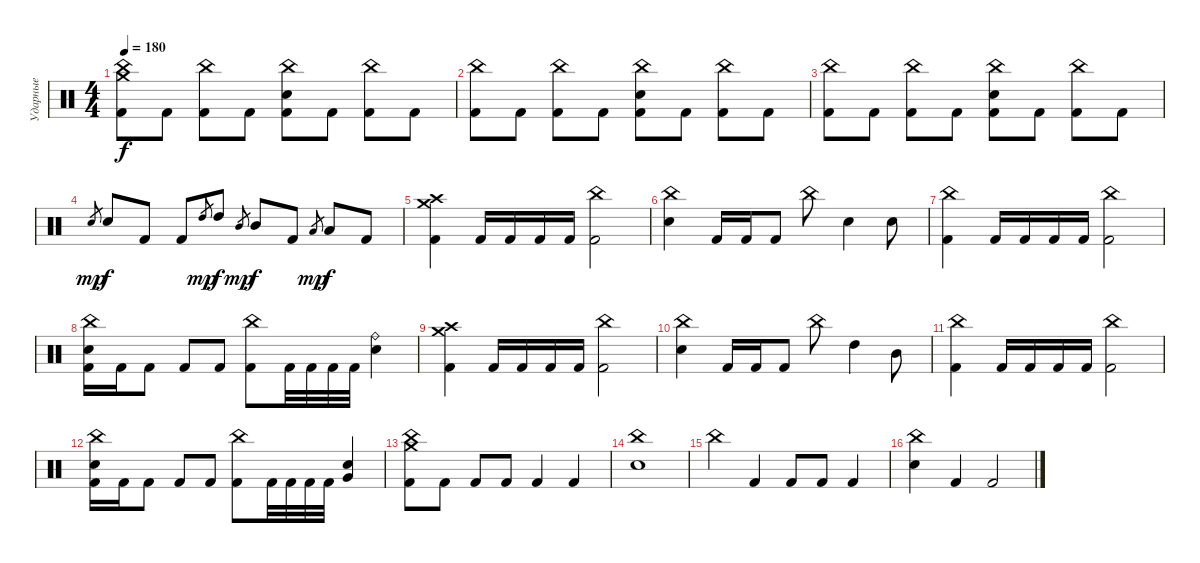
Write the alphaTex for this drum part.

\track ("Ударные" "Ударные") {instrument percussion}
\staff {score}
\articulation defaults
\ts (4 4)
\tempo 180
\clef neutral
\ks c
("China (hit)" "Crash medium (hit)" "Kick (hit) 2").8{dy f} "Kick (hit) 2".8 ("China (hit)" "Kick (hit) 2").8 "Kick (hit) 2".8 ("China (hit)" "Electric Snare (hit)" "Kick (hit) 2").8 "Kick (hit) 2".8 ("China (hit)" "Kick (hit) 2").8 "Kick (hit) 2".8 |
("China (hit)" "Kick (hit) 2").8 "Kick (hit) 2".8 ("China (hit)" "Kick (hit) 2").8 "Kick (hit) 2".8 ("China (hit)" "Electric Snare (hit)" "Kick (hit) 2").8 "Kick (hit) 2".8 ("China (hit)" "Kick (hit) 2").8 "Kick (hit) 2".8 |
("China (hit)" "Kick (hit) 2").8 "Kick (hit) 2".8 ("China (hit)" "Kick (hit) 2").8 "Kick (hit) 2".8 ("China (hit)" "Electric Snare (hit)" "Kick (hit) 2").8 "Kick (hit) 2".8 ("China (hit)" "Kick (hit) 2").8 "Kick (hit) 2".8 |
"Electric Snare (hit)".8{gr dy mp} "Electric Snare (hit)".8{dy f} "Kick (hit) 2".8 "Kick (hit) 2".8 "High Tom (hit)".8{gr dy mp} "High Tom (hit)".8{dy f} "Mid Tom (hit)".8{gr dy mp} "Mid Tom (hit)".8{dy f} "Kick (hit) 2".8 "Low Tom (hit)".8{gr dy mp} "Low Tom (hit)".8{dy f} "Kick (hit) 2".8 |
("Crash high (hit)" "Crash medium (hit)" "Kick (hit) 2").4 "Kick (hit) 2".16 "Kick (hit) 2".16 "Kick (hit) 2".16 "Kick (hit) 2".16 ("China (hit)" "Kick (hit) 2").2 |
("China (hit)" "Electric Snare (hit)").4 "Kick (hit) 2".16 "Kick (hit) 2".16 "Kick (hit) 2".8 "China (hit)".8 "Electric Snare (hit)".4 "Electric Snare (hit)".8 |
("China (hit)" "Kick (hit) 2").4 "Kick (hit) 2".16 "Kick (hit) 2".16 "Kick (hit) 2".16 "Kick (hit) 2".16 ("China (hit)" "Kick (hit) 2").2 |
("China (hit)" "Electric Snare (hit)" "Kick (hit) 2").16 "Kick (hit) 2".16 "Kick (hit) 2".8 "Kick (hit) 2".8 "Kick (hit) 2".8 ("China (hit)" "Kick (hit) 2").8 "Kick (hit) 2".32 "Kick (hit) 2".32 "Kick (hit) 2".32 "Kick (hit) 2".32 ("Ride (bell)" "Electric Snare (hit)").4 |
("Crash high (hit)" "Crash medium (hit)" "Kick (hit) 2").4 "Kick (hit) 2".16 "Kick (hit) 2".16 "Kick (hit) 2".16 "Kick (hit) 2".16 ("China (hit)" "Kick (hit) 2").2 |
("China (hit)" "Electric Snare (hit)").4 "Kick (hit) 2".16 "Kick (hit) 2".16 "Kick (hit) 2".8 "China (hit)".8 "High Tom (hit)".4 "Mid Tom (hit)".8 |
("China (hit)" "Kick (hit) 2").4 "Kick (hit) 2".16 "Kick (hit) 2".16 "Kick (hit) 2".16 "Kick (hit) 2".16 ("China (hit)" "Kick (hit) 2").2 |
("China (hit)" "Electric Snare (hit)" "Kick (hit) 2").16 "Kick (hit) 2".16 "Kick (hit) 2".8 "Kick (hit) 2".8 "Kick (hit) 2".8 ("China (hit)" "Kick (hit) 2").8 "Kick (hit) 2".32 "Kick (hit) 2".32 "Kick (hit) 2".32 "Kick (hit) 2".32 ("Very Low Tom (hit)" "Electric Snare (hit)").4 |
("China (hit)" "Crash medium (hit)" "Kick (hit) 2").8 "Kick (hit) 2".8 "Kick (hit) 2".8 "Kick (hit) 2".8 "Kick (hit) 2".4 "Kick (hit) 2".4 |
("China (hit)" "Electric Snare (hit)").1 |
"China (hit)".4 "Kick (hit) 2".4 "Kick (hit) 2".8 "Kick (hit) 2".8 "Kick (hit) 2".4 |
("China (hit)" "Electric Snare (hit)").4 "Kick (hit) 2".4 "Kick (hit) 2".2
